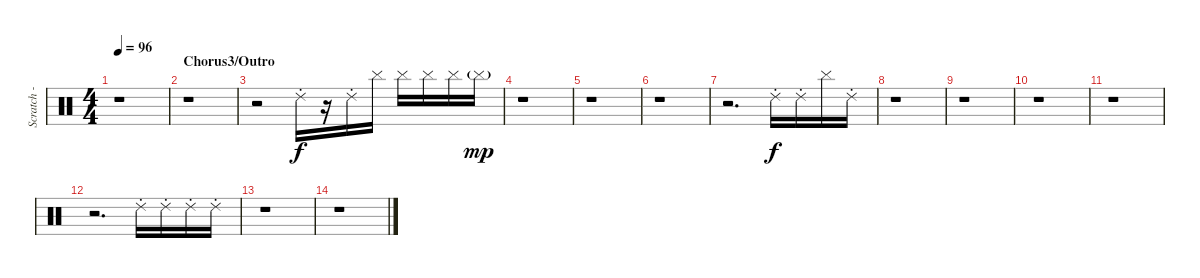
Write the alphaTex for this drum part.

\track ("Scratch - ???" "Scratch - ") {instrument percussion}
\staff {score}
\articulation defaults
\ts (4 4)
\tempo 96
\clef neutral
\ks c
r.1{dy f} |
\section ("" "Chorus3/Outro")
r.1 |
r.2 "Ride (choke) 2".16 r.16 "Ride (choke) 2".16 "Cymbal (hit)".16 "Cymbal (hit)".16 "Cymbal (hit)".16 "Cymbal (hit)".16 "Cymbal (hit)"{g}.16{dy mp} |
r.1 |
r.1 |
r.1 |
r.2{d} "Ride (choke) 2".16{dy f} "Ride (choke) 2".16 "Cymbal (hit)".16 "Ride (choke) 2".16 |
r.1 |
r.1 |
r.1 |
r.1 |
r.2{d} "Ride (choke) 2".16 "Ride (choke) 2".16 "Ride (choke) 2".16 "Ride (choke) 2".16 |
r.1 |
r.1
